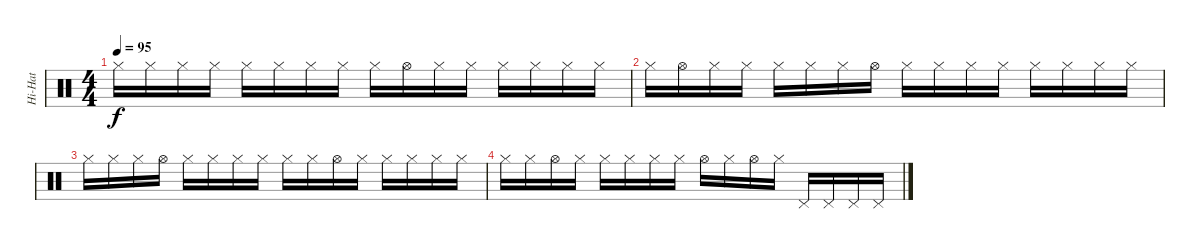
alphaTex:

\track ("Hi-Hat" "Hi-Hat") {instrument percussion}
\staff {score}
\articulation defaults
\ts (4 4)
\tempo 95
\clef neutral
\ks c "Hi-Hat (closed)".16{dy f} "Hi-Hat (closed)".16 "Hi-Hat (closed)".16 "Hi-Hat (closed)".16 "Hi-Hat (closed)".16 "Hi-Hat (closed)".16 "Hi-Hat (closed)".16 "Hi-Hat (closed)".16 "Hi-Hat (closed)".16 "Hi-Hat (open)".16 "Hi-Hat (closed)".16 "Hi-Hat (closed)".16 "Hi-Hat (closed)".16 "Hi-Hat (closed)".16 "Hi-Hat (closed)".16 "Hi-Hat (closed)".16
|
"Hi-Hat (closed)".16 "Hi-Hat (open)".16 "Hi-Hat (closed)".16 "Hi-Hat (closed)".16 "Hi-Hat (closed)".16 "Hi-Hat (closed)".16 "Hi-Hat (closed)".16 "Hi-Hat (open)".16 "Hi-Hat (closed)".16 "Hi-Hat (closed)".16 "Hi-Hat (closed)".16 "Hi-Hat (closed)".16 "Hi-Hat (closed)".16 "Hi-Hat (closed)".16 "Hi-Hat (closed)".16 "Hi-Hat (closed)".16 |
"Hi-Hat (closed)".16 "Hi-Hat (closed)".16 "Hi-Hat (closed)".16 "Hi-Hat (open)".16 "Hi-Hat (closed)".16 "Hi-Hat (closed)".16 "Hi-Hat (closed)".16 "Hi-Hat (closed)".16 "Hi-Hat (closed)".16 "Hi-Hat (closed)".16 "Hi-Hat (open)".16 "Hi-Hat (closed)".16 "Hi-Hat (closed)".16 "Hi-Hat (closed)".16 "Hi-Hat (closed)".16 "Hi-Hat (closed)".16 |
"Hi-Hat (closed)".16 "Hi-Hat (closed)".16 "Hi-Hat (open)".16 "Hi-Hat (closed)".16 "Hi-Hat (closed)".16 "Hi-Hat (closed)".16 "Hi-Hat (closed)".16 "Hi-Hat (closed)".16 "Hi-Hat (open)".16 "Hi-Hat (closed)".16 "Hi-Hat (open)".16 "Hi-Hat (closed)".16 "Pedal Hi-Hat (hit)".16 "Pedal Hi-Hat (hit)"{x}.16 "Pedal Hi-Hat (hit)".16 "Pedal Hi-Hat (hit)"{x}.16
